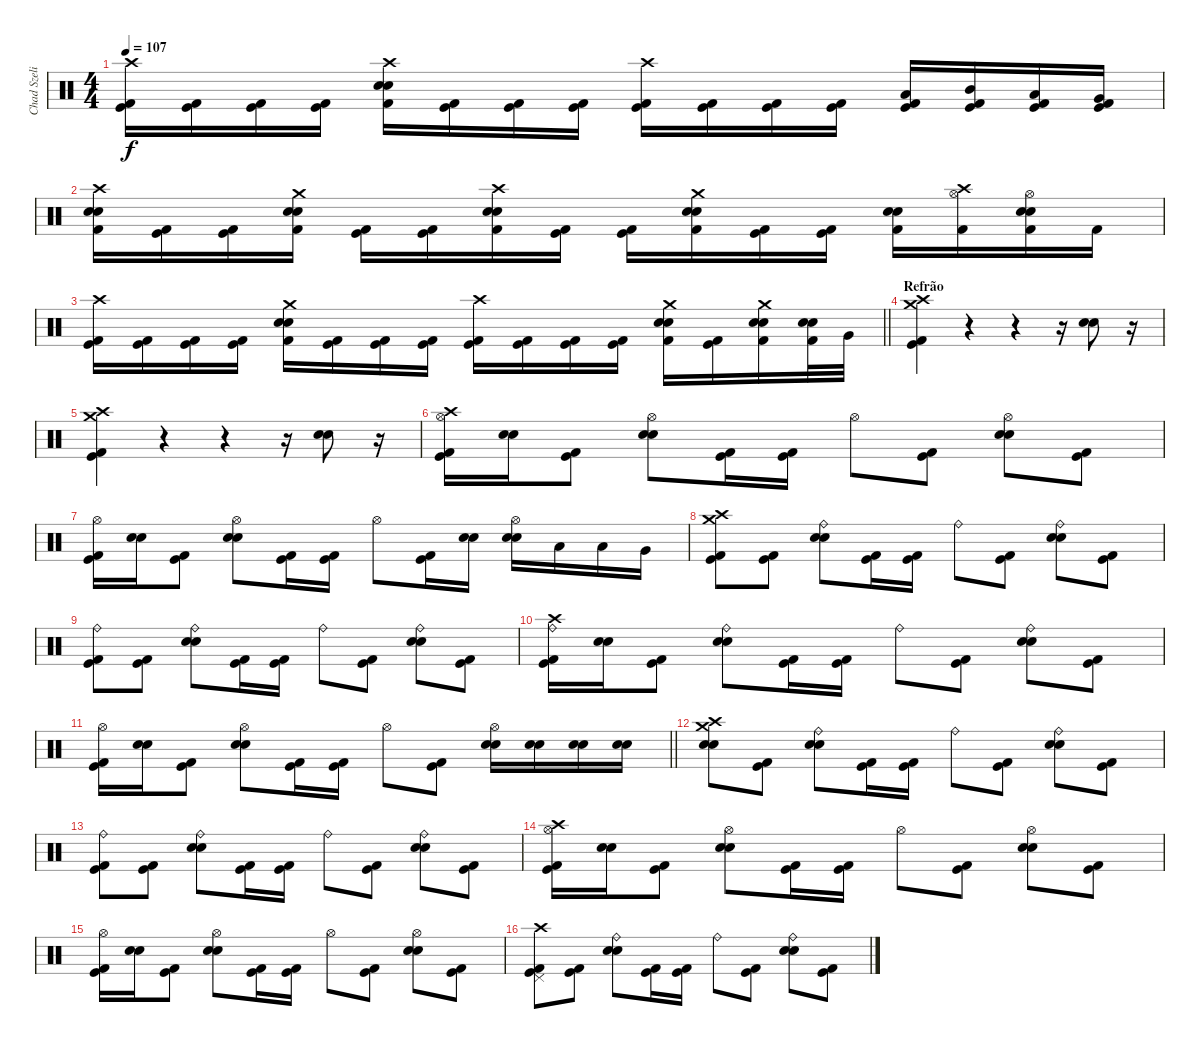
\track ("Chad Szeliga" "Chad Szeli") {instrument percussion}
\staff {score}
\articulation defaults
\ts (4 4)
\tempo 107
\clef neutral
\ks c
("Crash high (hit)" "Kick (hit) 2" "Kick (hit)").16{dy f} ("Kick (hit) 2" "Kick (hit)").16 ("Kick (hit) 2" "Kick (hit)").16 ("Kick (hit) 2" "Kick (hit)").16 ("Crash high (hit)" "Kick (hit) 2" "Snare (hit) 2" "Snare (hit) 2").16 ("Kick (hit) 2" "Kick (hit)").16 ("Kick (hit) 2" "Kick (hit)").16 ("Kick (hit) 2" "Kick (hit)").16 ("Crash high (hit)" "Kick (hit) 2" "Kick (hit)").16 ("Kick (hit) 2" "Kick (hit)").16 ("Kick (hit) 2" "Kick (hit)").16 ("Kick (hit) 2" "Kick (hit)").16 ("Kick (hit) 2" "Kick (hit)" "Low Tom (hit)").16 ("Kick (hit) 2" "Kick (hit)" "Mid Tom (hit)").16 ("Kick (hit) 2" "Kick (hit)" "Low Tom (hit)").16 ("Kick (hit) 2" "Kick (hit)" "Very Low Tom (hit)").16 |
("Crash high (hit)" "Kick (hit) 2" "Snare (hit) 2" "Snare (hit) 2").16 ("Kick (hit) 2" "Kick (hit)").16 ("Kick (hit) 2" "Kick (hit)").16 ("Crash medium (hit)" "Kick (hit) 2" "Snare (hit) 2" "Snare (hit) 2").16 ("Kick (hit) 2" "Kick (hit)").16 ("Kick (hit) 2" "Kick (hit)").16 ("Crash high (hit)" "Kick (hit) 2" "Snare (hit) 2" "Snare (hit) 2").16 ("Kick (hit) 2" "Kick (hit)").16 ("Kick (hit) 2" "Kick (hit)").16 ("Crash medium (hit)" "Kick (hit) 2" "Snare (hit) 2" "Snare (hit) 2").16 ("Kick (hit) 2" "Kick (hit)").16 ("Kick (hit) 2" "Kick (hit)").16 ("Kick (hit) 2" "Snare (hit) 2" "Snare (hit) 2").16 ("Crash high (hit)" "Kick (hit) 2" "Hi-Hat (open)").16 ("Kick (hit) 2" "Snare (hit) 2" "Snare (hit) 2" "Hi-Hat (open)").16 "Kick (hit) 2".16 |
\barLineRight lightlight
("Crash high (hit)" "Kick (hit) 2" "Kick (hit)").16 ("Kick (hit) 2" "Kick (hit)").16 ("Kick (hit) 2" "Kick (hit)").16 ("Kick (hit) 2" "Kick (hit)").16 ("Crash medium (hit)" "Kick (hit) 2" "Snare (hit) 2" "Snare (hit) 2").16 ("Kick (hit) 2" "Kick (hit)").16 ("Kick (hit) 2" "Kick (hit)").16 ("Kick (hit) 2" "Kick (hit)").16 ("Crash high (hit)" "Kick (hit) 2" "Kick (hit)").16 ("Kick (hit) 2" "Kick (hit)").16 ("Kick (hit) 2" "Kick (hit)").16 ("Kick (hit) 2" "Kick (hit)").16 ("Crash medium (hit)" "Kick (hit) 2" "Snare (hit) 2" "Snare (hit) 2").16 ("Kick (hit) 2" "Kick (hit)").16 ("Crash medium (hit)" "Kick (hit) 2" "Snare (hit) 2" "Snare (hit) 2").16 ("Kick (hit) 2" "Snare (hit) 2" "Snare (hit) 2").32 "Very Low Tom (hit)".32 |
\section ("" "Refrão")
("Crash high (hit)" "Kick (hit) 2" "Kick (hit)" "Crash medium (hit)").4 r.4 r.4 r.16 ("Snare (hit) 2" "Snare (hit) 2").8 r.16 |
("Crash high (hit)" "Kick (hit) 2" "Kick (hit)" "Crash medium (hit)").4 r.4 r.4 r.16 ("Snare (hit) 2" "Snare (hit) 2").8 r.16 |
("Crash high (hit)" "Kick (hit) 2" "Kick (hit)" "Hi-Hat (open)").16 ("Snare (hit) 2" "Snare (hit) 2").16 ("Kick (hit) 2" "Kick (hit)").8 ("Snare (hit) 2" "Snare (hit) 2" "Hi-Hat (open)").8 ("Kick (hit) 2" "Kick (hit)").16 ("Kick (hit) 2" "Kick (hit)").16 "Hi-Hat (open)".8 ("Kick (hit) 2" "Kick (hit)").8 ("Snare (hit) 2" "Snare (hit) 2" "Hi-Hat (open)").8 ("Kick (hit) 2" "Kick (hit)").8 |
("Kick (hit) 2" "Kick (hit)" "Hi-Hat (open)").16 ("Snare (hit) 2" "Snare (hit) 2").16 ("Kick (hit) 2" "Kick (hit)").8 ("Snare (hit) 2" "Snare (hit) 2" "Hi-Hat (open)").8 ("Kick (hit) 2" "Kick (hit)").16 ("Kick (hit) 2" "Kick (hit)").16 "Hi-Hat (open)".8 ("Kick (hit) 2" "Kick (hit)").16 ("Snare (hit) 2" "Snare (hit) 2").16 ("Snare (hit) 2" "Snare (hit) 2" "Hi-Hat (open)").16 "Low Tom (hit)".16 "Low Tom (hit)".16 "Very Low Tom (hit)".16 |
("Crash high (hit)" "Kick (hit) 2" "Kick (hit)" "Crash medium (hit)").8 ("Kick (hit) 2" "Kick (hit)").8 ("Snare (hit) 2" "Snare (hit) 2" "Ride (bell)").8 ("Kick (hit) 2" "Kick (hit)").16 ("Kick (hit) 2" "Kick (hit)").16 "Ride (bell)".8 ("Kick (hit) 2" "Kick (hit)").8 ("Snare (hit) 2" "Snare (hit) 2" "Ride (bell)").8 ("Kick (hit) 2" "Kick (hit)").8 |
("Kick (hit) 2" "Kick (hit)" "Ride (bell)").8 ("Kick (hit) 2" "Kick (hit)").8 ("Snare (hit) 2" "Snare (hit) 2" "Ride (bell)").8 ("Kick (hit) 2" "Kick (hit)").16 ("Kick (hit) 2" "Kick (hit)").16 "Ride (bell)".8 ("Kick (hit) 2" "Kick (hit)").8 ("Snare (hit) 2" "Snare (hit) 2" "Ride (bell)").8 ("Kick (hit) 2" "Kick (hit)").8 |
("Crash high (hit)" "Kick (hit) 2" "Kick (hit)" "Ride (bell)").16 ("Snare (hit) 2" "Snare (hit) 2").16 ("Kick (hit) 2" "Kick (hit)").8 ("Snare (hit) 2" "Snare (hit) 2" "Ride (bell)").8 ("Kick (hit) 2" "Kick (hit)").16 ("Kick (hit) 2" "Kick (hit)").16 "Ride (bell)".8 ("Kick (hit) 2" "Kick (hit)").8 ("Snare (hit) 2" "Snare (hit) 2" "Ride (bell)").8 ("Kick (hit) 2" "Kick (hit)").8 |
\barLineRight lightlight
("Kick (hit) 2" "Kick (hit)" "Hi-Hat (open)").16 ("Snare (hit) 2" "Snare (hit) 2").16 ("Kick (hit) 2" "Kick (hit)").8 ("Snare (hit) 2" "Snare (hit) 2" "Hi-Hat (open)").8 ("Kick (hit) 2" "Kick (hit)").16 ("Kick (hit) 2" "Kick (hit)").16 "Hi-Hat (open)".8 ("Kick (hit) 2" "Kick (hit)").8 ("Snare (hit) 2" "Snare (hit) 2" "Hi-Hat (open)").16 ("Snare (hit) 2" "Snare (hit) 2").16 ("Snare (hit) 2" "Snare (hit) 2").16 ("Snare (hit) 2" "Snare (hit) 2").16 |
("Crash high (hit)" "Snare (hit) 2" "Snare (hit) 2" "Crash medium (hit)").8 ("Kick (hit) 2" "Kick (hit)").8 ("Snare (hit) 2" "Snare (hit) 2" "Ride (bell)").8 ("Kick (hit) 2" "Kick (hit)").16 ("Kick (hit) 2" "Kick (hit)").16 "Ride (bell)".8 ("Kick (hit) 2" "Kick (hit)").8 ("Snare (hit) 2" "Snare (hit) 2" "Ride (bell)").8 ("Kick (hit) 2" "Kick (hit)").8 |
("Kick (hit) 2" "Kick (hit)" "Ride (bell)").8 ("Kick (hit) 2" "Kick (hit)").8 ("Snare (hit) 2" "Snare (hit) 2" "Ride (bell)").8 ("Kick (hit) 2" "Kick (hit)").16 ("Kick (hit) 2" "Kick (hit)").16 "Ride (bell)".8 ("Kick (hit) 2" "Kick (hit)").8 ("Snare (hit) 2" "Snare (hit) 2" "Ride (bell)").8 ("Kick (hit) 2" "Kick (hit)").8 |
("Crash high (hit)" "Kick (hit) 2" "Kick (hit)" "Hi-Hat (open)").16 ("Snare (hit) 2" "Snare (hit) 2").16 ("Kick (hit) 2" "Kick (hit)").8 ("Snare (hit) 2" "Snare (hit) 2" "Hi-Hat (open)").8 ("Kick (hit) 2" "Kick (hit)").16 ("Kick (hit) 2" "Kick (hit)").16 "Hi-Hat (open)".8 ("Kick (hit) 2" "Kick (hit)").8 ("Snare (hit) 2" "Snare (hit) 2" "Hi-Hat (open)").8 ("Kick (hit) 2" "Kick (hit)").8 |
("Kick (hit) 2" "Kick (hit)" "Hi-Hat (open)").16 ("Snare (hit) 2" "Snare (hit) 2").16 ("Kick (hit) 2" "Kick (hit)").8 ("Snare (hit) 2" "Snare (hit) 2" "Hi-Hat (open)").8 ("Kick (hit) 2" "Kick (hit)").16 ("Kick (hit) 2" "Kick (hit)").16 "Hi-Hat (open)".8 ("Kick (hit) 2" "Kick (hit)").8 ("Snare (hit) 2" "Snare (hit) 2" "Hi-Hat (open)").8 ("Kick (hit) 2" "Kick (hit)").8 |
("Crash high (hit)" "Kick (hit) 2" "Kick (hit)" "Pedal Hi-Hat (hit)").8 ("Kick (hit) 2" "Kick (hit)").8 ("Snare (hit) 2" "Snare (hit) 2" "Ride (bell)").8 ("Kick (hit) 2" "Kick (hit)").16 ("Kick (hit) 2" "Kick (hit)").16 "Ride (bell)".8 ("Kick (hit) 2" "Kick (hit)").8 ("Snare (hit) 2" "Snare (hit) 2" "Ride (bell)").8 ("Kick (hit) 2" "Kick (hit)").8
